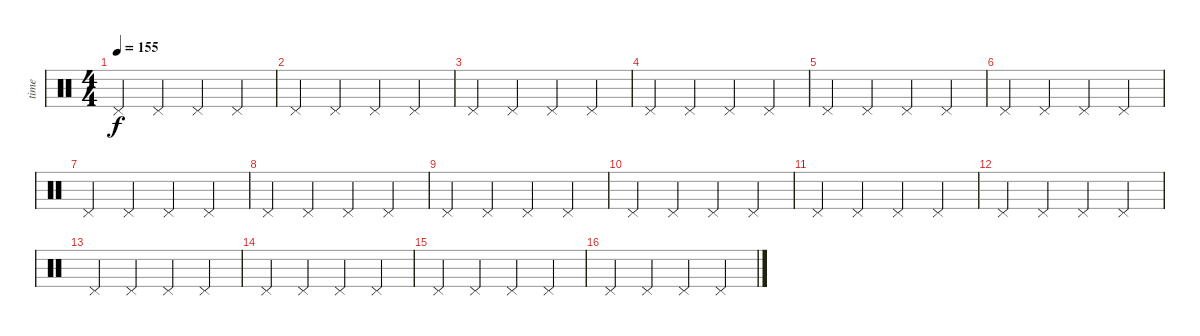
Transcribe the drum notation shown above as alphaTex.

\track ("time" "time") {instrument percussion}
\staff {score}
\articulation defaults
\ts (4 4)
\tempo 155
\clef neutral
\ks c "Pedal Hi-Hat (hit)".4{dy f} "Pedal Hi-Hat (hit)".4 "Pedal Hi-Hat (hit)".4 "Pedal Hi-Hat (hit)".4
|
"Pedal Hi-Hat (hit)".4 "Pedal Hi-Hat (hit)".4 "Pedal Hi-Hat (hit)".4 "Pedal Hi-Hat (hit)".4 |
"Pedal Hi-Hat (hit)".4 "Pedal Hi-Hat (hit)".4 "Pedal Hi-Hat (hit)".4 "Pedal Hi-Hat (hit)".4 |
"Pedal Hi-Hat (hit)".4 "Pedal Hi-Hat (hit)".4 "Pedal Hi-Hat (hit)".4 "Pedal Hi-Hat (hit)".4 |
"Pedal Hi-Hat (hit)".4 "Pedal Hi-Hat (hit)".4 "Pedal Hi-Hat (hit)".4 "Pedal Hi-Hat (hit)".4 |
"Pedal Hi-Hat (hit)".4 "Pedal Hi-Hat (hit)".4 "Pedal Hi-Hat (hit)".4 "Pedal Hi-Hat (hit)".4 |
"Pedal Hi-Hat (hit)".4 "Pedal Hi-Hat (hit)".4 "Pedal Hi-Hat (hit)".4 "Pedal Hi-Hat (hit)".4 |
"Pedal Hi-Hat (hit)".4 "Pedal Hi-Hat (hit)".4 "Pedal Hi-Hat (hit)".4 "Pedal Hi-Hat (hit)".4 |
"Pedal Hi-Hat (hit)".4 "Pedal Hi-Hat (hit)".4 "Pedal Hi-Hat (hit)".4 "Pedal Hi-Hat (hit)".4 |
"Pedal Hi-Hat (hit)".4 "Pedal Hi-Hat (hit)".4 "Pedal Hi-Hat (hit)".4 "Pedal Hi-Hat (hit)".4 |
"Pedal Hi-Hat (hit)".4 "Pedal Hi-Hat (hit)".4 "Pedal Hi-Hat (hit)".4 "Pedal Hi-Hat (hit)".4 |
"Pedal Hi-Hat (hit)".4 "Pedal Hi-Hat (hit)".4 "Pedal Hi-Hat (hit)".4 "Pedal Hi-Hat (hit)".4 |
"Pedal Hi-Hat (hit)".4 "Pedal Hi-Hat (hit)".4 "Pedal Hi-Hat (hit)".4 "Pedal Hi-Hat (hit)".4 |
"Pedal Hi-Hat (hit)".4 "Pedal Hi-Hat (hit)".4 "Pedal Hi-Hat (hit)".4 "Pedal Hi-Hat (hit)".4 |
"Pedal Hi-Hat (hit)".4 "Pedal Hi-Hat (hit)".4 "Pedal Hi-Hat (hit)".4 "Pedal Hi-Hat (hit)".4 |
"Pedal Hi-Hat (hit)".4 "Pedal Hi-Hat (hit)".4 "Pedal Hi-Hat (hit)".4 "Pedal Hi-Hat (hit)".4
